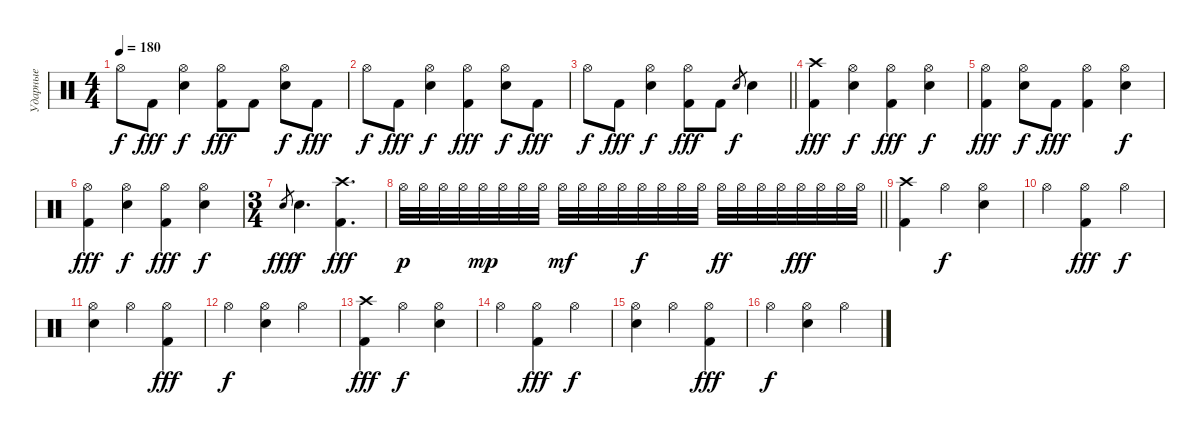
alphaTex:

\track ("Ударные" "Ударные") {instrument percussion}
\staff {score}
\articulation defaults
\ts (4 4)
\tempo 180
\clef neutral
\ks c "Hi-Hat (open)".8{dy f} "Kick (hit) 2".8{dy fff}
("Snare (hit) 2" "Hi-Hat (open)").4{dy f} ("Kick (hit) 2" "Hi-Hat (open)").8{dy fff} "Kick (hit) 2".8 ("Snare (hit) 2" "Hi-Hat (open)").8{dy f} "Kick (hit) 2".8{dy fff} |
"Hi-Hat (open)".8{dy f} "Kick (hit) 2".8{dy fff} ("Snare (hit) 2" "Hi-Hat (open)").4{dy f} ("Kick (hit) 2" "Hi-Hat (open)").4{dy fff} ("Snare (hit) 2" "Hi-Hat (open)").8{dy f} "Kick (hit) 2".8{dy fff} |
\barLineRight lightlight "Hi-Hat (open)".8{dy f} "Kick (hit) 2".8{dy fff}
("Snare (hit) 2" "Hi-Hat (open)").4{dy f} ("Kick (hit) 2" "Hi-Hat (open)").8{dy fff} "Kick (hit) 2".8 "Snare (hit) 2".8{gr dy f} "Snare (hit) 2".4 |
("Kick (hit) 2" "Crash high (hit)").4{dy fff} ("Snare (hit) 2" "Hi-Hat (open)").4{dy f} ("Kick (hit) 2" "Hi-Hat (open)").4{dy fff} ("Snare (hit) 2" "Hi-Hat (open)").4{dy f} |
("Kick (hit) 2" "Hi-Hat (open)").4{dy fff} ("Snare (hit) 2" "Hi-Hat (open)").8{dy f} "Kick (hit) 2".8{dy fff} ("Kick (hit) 2" "Hi-Hat (open)").4 ("Snare (hit) 2" "Hi-Hat (open)").4{dy f} |
("Kick (hit) 2" "Hi-Hat (open)").4{dy fff} ("Snare (hit) 2" "Hi-Hat (open)").4{dy f} ("Kick (hit) 2" "Hi-Hat (open)").4{dy fff} ("Snare (hit) 2" "Hi-Hat (open)").4{dy f} |
\ts (3 4)
"Snare (hit) 2".8{gr dy fff} "Snare (hit) 2".4{d dy f} ("Kick (hit) 2" "Crash high (hit)").4{d dy fff} |
\barLineRight lightlight "Hi-Hat (open)".32{dy p} "Hi-Hat (open)".32 "Hi-Hat (open)".32 "Hi-Hat (open)".32 "Hi-Hat (open)".32{dy mp} "Hi-Hat (open)".32 "Hi-Hat (open)".32 "Hi-Hat (open)".32 "Hi-Hat (open)".32{dy mf} "Hi-Hat (open)".32 "Hi-Hat (open)".32 "Hi-Hat (open)".32 "Hi-Hat (open)".32{dy f} "Hi-Hat (open)".32 "Hi-Hat (open)".32 "Hi-Hat (open)".32 "Hi-Hat (open)".32{dy ff} "Hi-Hat (open)".32 "Hi-Hat (open)".32 "Hi-Hat (open)".32 "Hi-Hat (open)".32{dy fff} "Hi-Hat (open)".32 "Hi-Hat (open)".32 "Hi-Hat (open)".32
|
("Kick (hit) 2" "Crash high (hit)").4 "Hi-Hat (open)".4{dy f} ("Snare (hit) 2" "Hi-Hat (open)").4 |
"Hi-Hat (open)".4 ("Kick (hit) 2" "Hi-Hat (open)").4{dy fff} "Hi-Hat (open)".4{dy f} |
("Snare (hit) 2" "Hi-Hat (open)").4 "Hi-Hat (open)".4 ("Kick (hit) 2" "Hi-Hat (open)").4{dy fff} |
"Hi-Hat (open)".4{dy f} ("Snare (hit) 2" "Hi-Hat (open)").4 "Hi-Hat (open)".4 |
("Kick (hit) 2" "Crash high (hit)").4{dy fff} "Hi-Hat (open)".4{dy f} ("Snare (hit) 2" "Hi-Hat (open)").4 |
"Hi-Hat (open)".4 ("Kick (hit) 2" "Hi-Hat (open)").4{dy fff} "Hi-Hat (open)".4{dy f} |
("Snare (hit) 2" "Hi-Hat (open)").4 "Hi-Hat (open)".4 ("Kick (hit) 2" "Hi-Hat (open)").4{dy fff} |
"Hi-Hat (open)".4{dy f} ("Snare (hit) 2" "Hi-Hat (open)").4 "Hi-Hat (open)".4
